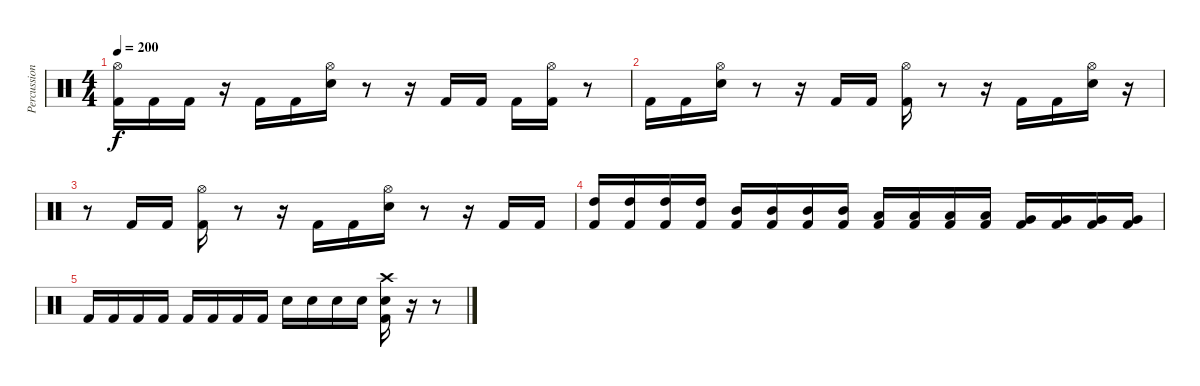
\track ("Percussion" "Percussion") {instrument percussion}
\staff {score}
\articulation defaults
\ts (4 4)
\tempo 200
\clef neutral
\ks c
("Hi-Hat (open)" "Kick (hit) 2").16{dy f} "Kick (hit) 2".16 "Kick (hit) 2".16 r.16 "Kick (hit) 2".16 "Kick (hit) 2".16 ("Hi-Hat (open)" "Electric Snare (hit)").16 r.8 r.16 "Kick (hit) 2".16 "Kick (hit) 2".16 "Kick (hit) 2".16 ("Hi-Hat (open)" "Kick (hit) 2").16 r.8 |
"Kick (hit) 2".16 "Kick (hit) 2".16 ("Hi-Hat (open)" "Electric Snare (hit)").16 r.8 r.16 "Kick (hit) 2".16 "Kick (hit) 2".16 ("Hi-Hat (open)" "Kick (hit) 2").16 r.8 r.16 "Kick (hit) 2".16 "Kick (hit) 2".16 ("Hi-Hat (open)" "Electric Snare (hit)").16 r.16 |
r.8 "Kick (hit) 2".16 "Kick (hit) 2".16 ("Hi-Hat (open)" "Kick (hit) 2").16 r.8 r.16 "Kick (hit) 2".16 "Kick (hit) 2".16 ("Hi-Hat (open)" "Electric Snare (hit)").16 r.8 r.16 "Kick (hit) 2".16 "Kick (hit) 2".16 |
("High Tom (hit)" "Kick (hit) 2").16 ("High Tom (hit)" "Kick (hit) 2").16 ("High Tom (hit)" "Kick (hit) 2").16 ("High Tom (hit)" "Kick (hit) 2").16 ("Mid Tom (hit)" "Kick (hit) 2").16 ("Mid Tom (hit)" "Kick (hit) 2").16 ("Mid Tom (hit)" "Kick (hit) 2").16 ("Mid Tom (hit)" "Kick (hit) 2").16 ("Low Tom (hit)" "Kick (hit) 2").16 ("Low Tom (hit)" "Kick (hit) 2").16 ("Low Tom (hit)" "Kick (hit) 2").16 ("Low Tom (hit)" "Kick (hit) 2").16 ("Very Low Tom (hit)" "Kick (hit) 2").16 ("Very Low Tom (hit)" "Kick (hit) 2").16 ("Very Low Tom (hit)" "Kick (hit) 2").16 ("Very Low Tom (hit)" "Kick (hit) 2").16 |
"Kick (hit) 2".16 "Kick (hit) 2".16 "Kick (hit) 2".16 "Kick (hit) 2".16 "Kick (hit) 2".16 "Kick (hit) 2".16 "Kick (hit) 2".16 "Kick (hit) 2".16 "Electric Snare (hit)".16 "Electric Snare (hit)".16 "Electric Snare (hit)".16 "Electric Snare (hit)".16 ("Crash high (hit)" "Electric Snare (hit)" "Kick (hit) 2").16 r.16 r.8
